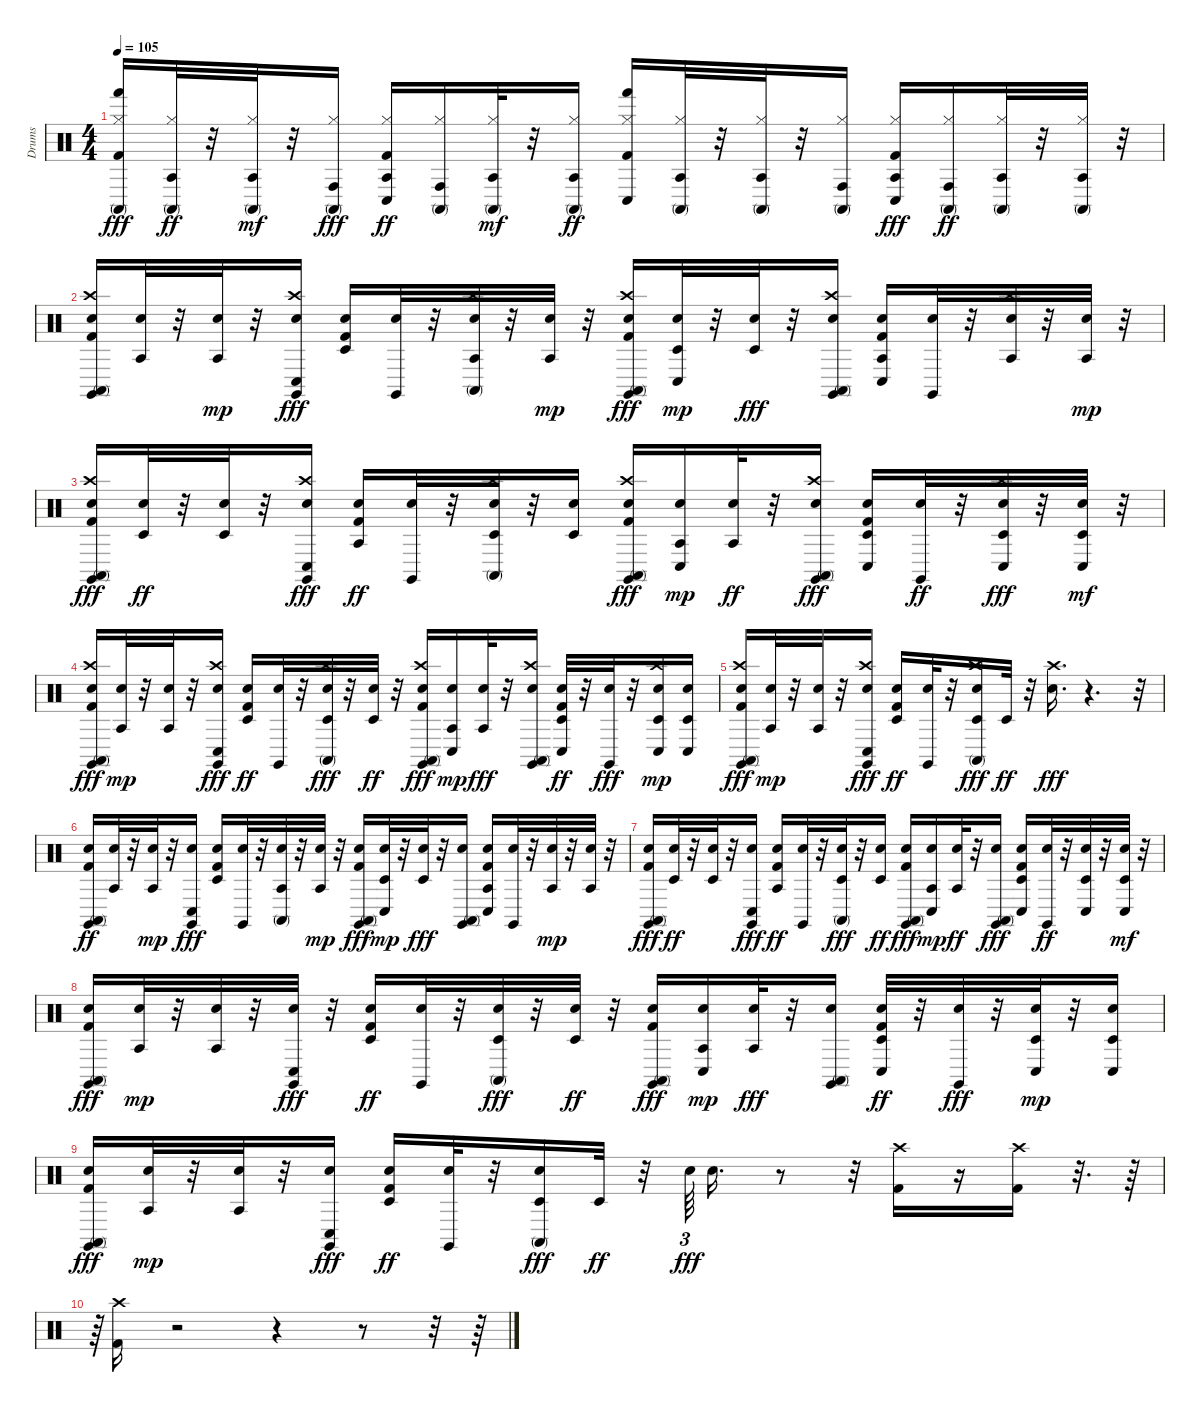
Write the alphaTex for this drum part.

\track ("Drums" "Drums") {instrument percussion}
\staff {score}
\articulation defaults
\ts (4 4)
\tempo 105
\clef neutral
\ks c
("Hand (hit)" "Conga high (mute)" "Hi-Hat (closed)" "Kick (hit) 2").16{dy fff} ("Agogo tow (hit)" "Conga high (mute)" "Hi-Hat (closed)").32{dy ff} r.32 ("Agogo tow (hit)" "Hi-Hat (closed)" "Conga high (mute)").32{dy mf} r.32 ("Conga high (mute)" "Hi-Hat (closed)" "Conga high (hit)").16{dy fff} ("Hi-Hat (closed)" "Kick (hit) 2" "Conga low (hit)" "Agogo tow (hit)").16{dy ff} ("Conga high (mute)" "Hi-Hat (closed)" "Conga high (hit)").16 ("Agogo tow (hit)" "Hi-Hat (closed)" "Conga high (mute)").32{dy mf} r.32 ("Agogo tow (hit)" "Conga high (mute)" "Hi-Hat (closed)").16{dy ff} ("Conga low (hit)" "Hi-Hat (closed)" "Kick (hit) 2" "Hand (hit)").16 ("Agogo tow (hit)" "Hi-Hat (closed)" "Conga high (mute)").32 r.32 ("Agogo tow (hit)" "Conga high (mute)" "Hi-Hat (closed)").32 r.32 ("Hi-Hat (closed)" "Conga high (mute)" "Conga high (hit)").16 ("Agogo tow (hit)" "Conga low (hit)" "Hi-Hat (closed)" "Kick (hit) 2").16{dy fff} ("Conga high (mute)" "Hi-Hat (closed)" "Conga high (hit)").16{dy ff} ("Agogo tow (hit)" "Hi-Hat (closed)" "Conga high (mute)").32 r.32 ("Agogo tow (hit)" "Conga high (mute)" "Hi-Hat (closed)").32 r.32 |
("Crash high (hit)" "Conga high (mute)" "Snare (hit) 2" "Kick (hit) 2" "Claves (hit)").16 ("Snare (hit) 2" "Agogo tow (hit)").32 r.32 ("Snare (hit) 2" "Agogo tow (hit)").32{dy mp} r.32 ("Crash high (hit)" "Snare (hit) 2" "Conga low (hit)" "Claves (hit)").16{dy fff} ("Timbale low (hit)" "Snare (hit) 2" "Kick (hit) 2").16 ("Snare (hit) 2" "Claves (hit)").32 r.32 ("Crash high (hit)" "Conga high (mute)" "Agogo tow (hit)" "Snare (hit) 2").32 r.32 ("Agogo tow (hit)" "Snare (hit) 2").32{dy mp} r.32 ("Snare (hit) 2" "Kick (hit) 2" "Conga high (mute)" "Crash high (hit)" "Claves (hit)").16{dy fff} ("Snare (hit) 2" "Timbale low (hit)" "Conga low (hit)").32{dy mp} r.32 ("Timbale low (hit)" "Snare (hit) 2").32{dy fff} r.32 ("Conga high (mute)" "Snare (hit) 2" "Crash high (hit)" "Claves (hit)").16 ("Conga low (hit)" "Agogo tow (hit)" "Snare (hit) 2" "Kick (hit) 2").16 ("Snare (hit) 2" "Claves (hit)").32 r.32 ("Agogo tow (hit)" "Snare (hit) 2" "Crash high (hit)").32 r.32 ("Agogo tow (hit)" "Snare (hit) 2").32{dy mp} r.32 |
("Conga high (mute)" "Snare (hit) 2" "Kick (hit) 2" "Crash high (hit)" "Claves (hit)").16{dy fff} ("Snare (hit) 2" "Timbale low (hit)").32{dy ff} r.32 ("Snare (hit) 2" "Timbale low (hit)").32 r.32 ("Conga low (hit)" "Snare (hit) 2" "Crash high (hit)" "Claves (hit)").16{dy fff} ("Snare (hit) 2" "Kick (hit) 2" "Agogo tow (hit)").16{dy ff} ("Snare (hit) 2" "Claves (hit)").32 r.32 ("Conga high (mute)" "Timbale low (hit)" "Snare (hit) 2" "Crash high (hit)").32 r.32 ("Snare (hit) 2" "Timbale low (hit)").16 ("Conga high (mute)" "Snare (hit) 2" "Kick (hit) 2" "Crash high (hit)" "Claves (hit)").16{dy fff} ("Conga low (hit)" "Agogo tow (hit)" "Snare (hit) 2").16{dy mp} ("Snare (hit) 2" "Agogo tow (hit)").32{dy ff} r.32 ("Conga high (mute)" "Snare (hit) 2" "Crash high (hit)" "Claves (hit)").16{dy fff} ("Timbale low (hit)" "Snare (hit) 2" "Kick (hit) 2" "Conga low (hit)").16 ("Snare (hit) 2" "Claves (hit)").32{dy ff} r.32 ("Timbale low (hit)" "Snare (hit) 2" "Conga low (hit)" "Crash high (hit)").32{dy fff} r.32 ("Timbale low (hit)" "Snare (hit) 2" "Conga low (hit)").32{dy mf} r.32 |
("Kick (hit) 2" "Snare (hit) 2" "Conga high (mute)" "Crash high (hit)" "Claves (hit)").16{dy fff} ("Agogo tow (hit)" "Snare (hit) 2").32{dy mp} r.32 ("Agogo tow (hit)" "Snare (hit) 2").32 r.32 ("Conga low (hit)" "Snare (hit) 2" "Crash high (hit)" "Claves (hit)").16{dy fff} ("Snare (hit) 2" "Kick (hit) 2" "Timbale low (hit)").16{dy ff} ("Snare (hit) 2" "Claves (hit)").32 r.32 ("Crash high (hit)" "Conga high (mute)" "Timbale low (hit)" "Snare (hit) 2").32{dy fff} r.32 ("Snare (hit) 2" "Timbale low (hit)").32{dy ff} r.32 ("Conga high (mute)" "Snare (hit) 2" "Kick (hit) 2" "Crash high (hit)" "Claves (hit)").16{dy fff} ("Conga low (hit)" "Agogo tow (hit)" "Snare (hit) 2").16{dy mp} ("Agogo tow (hit)" "Snare (hit) 2").32{dy fff} r.32 ("Conga high (mute)" "Snare (hit) 2" "Crash high (hit)" "Claves (hit)").16 ("Kick (hit) 2" "Snare (hit) 2" "Timbale low (hit)" "Conga low (hit)").32{dy ff} r.32 ("Snare (hit) 2" "Claves (hit)").32{dy fff} r.32 ("Crash high (hit)" "Timbale low (hit)" "Snare (hit) 2" "Conga low (hit)").16{dy mp} ("Conga low (hit)" "Timbale low (hit)" "Snare (hit) 2").16 |
("Kick (hit) 2" "Snare (hit) 2" "Conga high (mute)" "Crash high (hit)" "Claves (hit)").16{dy fff} ("Agogo tow (hit)" "Snare (hit) 2").32{dy mp} r.32 ("Agogo tow (hit)" "Snare (hit) 2").32 r.32 ("Conga low (hit)" "Snare (hit) 2" "Crash high (hit)" "Claves (hit)").16{dy fff} ("Snare (hit) 2" "Kick (hit) 2" "Timbale low (hit)").16{dy ff} ("Snare (hit) 2" "Claves (hit)").32 r.32 ("Crash high (hit)" "Conga high (mute)" "Timbale low (hit)" "Snare (hit) 2").16{dy fff} "Timbale low (hit)".32{dy ff} r.32 ("Crash high (hit)" "Snare (hit) 2").16{d dy fff} r.4{d} r.32 |
("Conga high (mute)" "Snare (hit) 2" "Kick (hit) 2" "Claves (hit)").16{dy ff} ("Snare (hit) 2" "Agogo tow (hit)").32 r.32 ("Snare (hit) 2" "Agogo tow (hit)").32{dy mp} r.32 ("Snare (hit) 2" "Conga low (hit)" "Claves (hit)").16{dy fff} ("Timbale low (hit)" "Snare (hit) 2" "Kick (hit) 2").16 ("Snare (hit) 2" "Claves (hit)").32 r.32 ("Conga high (mute)" "Agogo tow (hit)" "Snare (hit) 2").32 r.32 ("Agogo tow (hit)" "Snare (hit) 2").32{dy mp} r.32 ("Snare (hit) 2" "Kick (hit) 2" "Conga high (mute)" "Claves (hit)").16{dy fff} ("Snare (hit) 2" "Timbale low (hit)" "Conga low (hit)").32{dy mp} r.32 ("Timbale low (hit)" "Snare (hit) 2").32{dy fff} r.32 ("Conga high (mute)" "Snare (hit) 2" "Claves (hit)").16 ("Conga low (hit)" "Agogo tow (hit)" "Snare (hit) 2" "Kick (hit) 2").16 ("Snare (hit) 2" "Claves (hit)").32 r.32 ("Agogo tow (hit)" "Snare (hit) 2").32{dy mp} r.32 ("Agogo tow (hit)" "Snare (hit) 2").32 r.32 |
("Conga high (mute)" "Snare (hit) 2" "Kick (hit) 2" "Claves (hit)").16{dy fff} ("Snare (hit) 2" "Timbale low (hit)").32{dy ff} r.32 ("Snare (hit) 2" "Timbale low (hit)").32 r.32 ("Conga low (hit)" "Snare (hit) 2" "Claves (hit)").16{dy fff} ("Snare (hit) 2" "Kick (hit) 2" "Agogo tow (hit)").16{dy ff} ("Snare (hit) 2" "Claves (hit)").32 r.32 ("Conga high (mute)" "Timbale low (hit)" "Snare (hit) 2").32{dy fff} r.32 ("Snare (hit) 2" "Timbale low (hit)").16{dy ff} ("Conga high (mute)" "Snare (hit) 2" "Kick (hit) 2" "Claves (hit)").16{dy fff} ("Conga low (hit)" "Agogo tow (hit)" "Snare (hit) 2").16{dy mp} ("Snare (hit) 2" "Agogo tow (hit)").32{dy ff} r.32 ("Conga high (mute)" "Snare (hit) 2" "Claves (hit)").16{dy fff} ("Timbale low (hit)" "Snare (hit) 2" "Kick (hit) 2" "Conga low (hit)").16 ("Snare (hit) 2" "Claves (hit)").32{dy ff} r.32 ("Timbale low (hit)" "Snare (hit) 2" "Conga low (hit)").32 r.32 ("Timbale low (hit)" "Snare (hit) 2" "Conga low (hit)").32{dy mf} r.32 |
("Kick (hit) 2" "Snare (hit) 2" "Conga high (mute)" "Claves (hit)").16{dy fff} ("Agogo tow (hit)" "Snare (hit) 2").32{dy mp} r.32 ("Agogo tow (hit)" "Snare (hit) 2").32 r.32 ("Conga low (hit)" "Snare (hit) 2" "Claves (hit)").32{dy fff} r.32 ("Snare (hit) 2" "Kick (hit) 2" "Timbale low (hit)").16{dy ff} ("Snare (hit) 2" "Claves (hit)").32 r.32 ("Conga high (mute)" "Timbale low (hit)" "Snare (hit) 2").32{dy fff} r.32 ("Snare (hit) 2" "Timbale low (hit)").32{dy ff} r.32 ("Conga high (mute)" "Snare (hit) 2" "Kick (hit) 2" "Claves (hit)").16{dy fff} ("Conga low (hit)" "Agogo tow (hit)" "Snare (hit) 2").16{dy mp} ("Agogo tow (hit)" "Snare (hit) 2").32{dy fff} r.32 ("Conga high (mute)" "Snare (hit) 2" "Claves (hit)").16 ("Kick (hit) 2" "Snare (hit) 2" "Timbale low (hit)" "Conga low (hit)").32{dy ff} r.32 ("Snare (hit) 2" "Claves (hit)").32{dy fff} r.32 ("Timbale low (hit)" "Snare (hit) 2" "Conga low (hit)").32{dy mp} r.32 ("Conga low (hit)" "Timbale low (hit)" "Snare (hit) 2").16 |
("Kick (hit) 2" "Snare (hit) 2" "Conga high (mute)" "Claves (hit)").16{dy fff} ("Agogo tow (hit)" "Snare (hit) 2").32{dy mp} r.32 ("Agogo tow (hit)" "Snare (hit) 2").32 r.32 ("Conga low (hit)" "Snare (hit) 2" "Claves (hit)").16{dy fff} ("Snare (hit) 2" "Kick (hit) 2" "Timbale low (hit)").16{dy ff} ("Snare (hit) 2" "Claves (hit)").32 r.32 ("Conga high (mute)" "Timbale low (hit)" "Snare (hit) 2").16{dy fff} "Timbale low (hit)".32{dy ff} r.32 "Snare (hit) 2".64{tu (3 2) dy fff} "Snare (hit) 2".16{d} r.8 r.32 ("Kick (hit) 2" "Crash high (hit)").16 r.16 ("Kick (hit) 2" "Crash high (hit)").16 r.32{d} r.64 |
r.64{tu (3 2)} ("Crash high (hit)" "Kick (hit) 2").16 r.2 r.4 r.8 r.32 r.64
